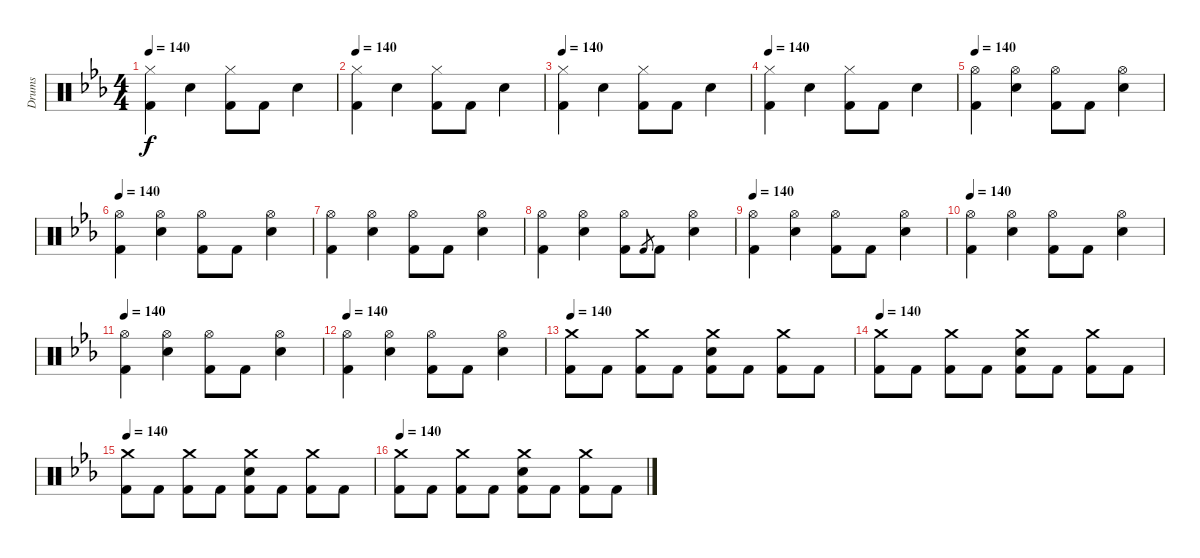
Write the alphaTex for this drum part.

\track ("Drums" "Drums") {instrument percussion}
\staff {score}
\articulation defaults
\ts (4 4)
\tempo 140
\clef neutral
\ks eb
("Hi-Hat (closed)" "Kick (hit) 2").4{dy f} "Snare (hit) 2".4 ("Hi-Hat (closed)" "Kick (hit) 2").8 "Kick (hit) 2".8 "Snare (hit) 2".4 |
\tempo 140
("Hi-Hat (closed)" "Kick (hit) 2").4 "Snare (hit) 2".4 ("Hi-Hat (closed)" "Kick (hit) 2").8 "Kick (hit) 2".8 "Snare (hit) 2".4 |
\tempo 140
("Hi-Hat (closed)" "Kick (hit) 2").4 "Snare (hit) 2".4 ("Hi-Hat (closed)" "Kick (hit) 2").8 "Kick (hit) 2".8 "Snare (hit) 2".4 |
\tempo 140
("Hi-Hat (closed)" "Kick (hit) 2").4 "Snare (hit) 2".4 ("Hi-Hat (closed)" "Kick (hit) 2").8 "Kick (hit) 2".8 "Snare (hit) 2".4 |
\tempo 140
("Hi-Hat (open)" "Kick (hit) 2").4 ("Hi-Hat (open)" "Snare (hit) 2").4 ("Hi-Hat (open)" "Kick (hit) 2").8 "Kick (hit) 2".8 ("Hi-Hat (open)" "Snare (hit) 2").4 |
\tempo 140
("Hi-Hat (open)" "Kick (hit) 2").4 ("Hi-Hat (open)" "Snare (hit) 2").4 ("Hi-Hat (open)" "Kick (hit) 2").8 "Kick (hit) 2".8 ("Hi-Hat (open)" "Snare (hit) 2").4 |
("Hi-Hat (open)" "Kick (hit) 2").4 ("Hi-Hat (open)" "Snare (hit) 2").4 ("Hi-Hat (open)" "Kick (hit) 2").8 "Kick (hit) 2".8 ("Hi-Hat (open)" "Snare (hit) 2").4 |
("Hi-Hat (open)" "Kick (hit) 2").4 ("Hi-Hat (open)" "Snare (hit) 2").4 ("Hi-Hat (open)" "Kick (hit) 2").8 "Kick (hit) 2".8{gr} "Kick (hit) 2".8 ("Hi-Hat (open)" "Snare (hit) 2").4 |
\tempo 140
("Hi-Hat (open)" "Kick (hit) 2").4 ("Hi-Hat (open)" "Snare (hit) 2").4 ("Hi-Hat (open)" "Kick (hit) 2").8 "Kick (hit) 2".8 ("Hi-Hat (open)" "Snare (hit) 2").4 |
\tempo 140
("Hi-Hat (open)" "Kick (hit) 2").4 ("Hi-Hat (open)" "Snare (hit) 2").4 ("Hi-Hat (open)" "Kick (hit) 2").8 "Kick (hit) 2".8 ("Hi-Hat (open)" "Snare (hit) 2").4 |
\tempo 140
("Hi-Hat (open)" "Kick (hit) 2").4 ("Hi-Hat (open)" "Snare (hit) 2").4 ("Hi-Hat (open)" "Kick (hit) 2").8 "Kick (hit) 2".8 ("Hi-Hat (open)" "Snare (hit) 2").4 |
\tempo 140
("Hi-Hat (open)" "Kick (hit) 2").4 ("Hi-Hat (open)" "Snare (hit) 2").4 ("Hi-Hat (open)" "Kick (hit) 2").8 "Kick (hit) 2".8 ("Hi-Hat (open)" "Snare (hit) 2").4 |
\tempo 140
("Crash medium (hit)" "Kick (hit) 2").8 "Kick (hit) 2".8 ("Crash medium (hit)" "Kick (hit) 2").8 "Kick (hit) 2".8 ("Crash medium (hit)" "Snare (hit) 2" "Kick (hit) 2").8 "Kick (hit) 2".8 ("Crash medium (hit)" "Kick (hit) 2").8 "Kick (hit) 2".8 |
\tempo 140
("Crash medium (hit)" "Kick (hit) 2").8 "Kick (hit) 2".8 ("Crash medium (hit)" "Kick (hit) 2").8 "Kick (hit) 2".8 ("Crash medium (hit)" "Snare (hit) 2" "Kick (hit) 2").8 "Kick (hit) 2".8 ("Crash medium (hit)" "Kick (hit) 2").8 "Kick (hit) 2".8 |
\tempo 140
("Crash medium (hit)" "Kick (hit) 2").8 "Kick (hit) 2".8 ("Crash medium (hit)" "Kick (hit) 2").8 "Kick (hit) 2".8 ("Crash medium (hit)" "Snare (hit) 2" "Kick (hit) 2").8 "Kick (hit) 2".8 ("Crash medium (hit)" "Kick (hit) 2").8 "Kick (hit) 2".8 |
\tempo 140
("Crash medium (hit)" "Kick (hit) 2").8 "Kick (hit) 2".8 ("Crash medium (hit)" "Kick (hit) 2").8 "Kick (hit) 2".8 ("Crash medium (hit)" "Snare (hit) 2" "Kick (hit) 2").8 "Kick (hit) 2".8 ("Crash medium (hit)" "Kick (hit) 2").8 "Kick (hit) 2".8
